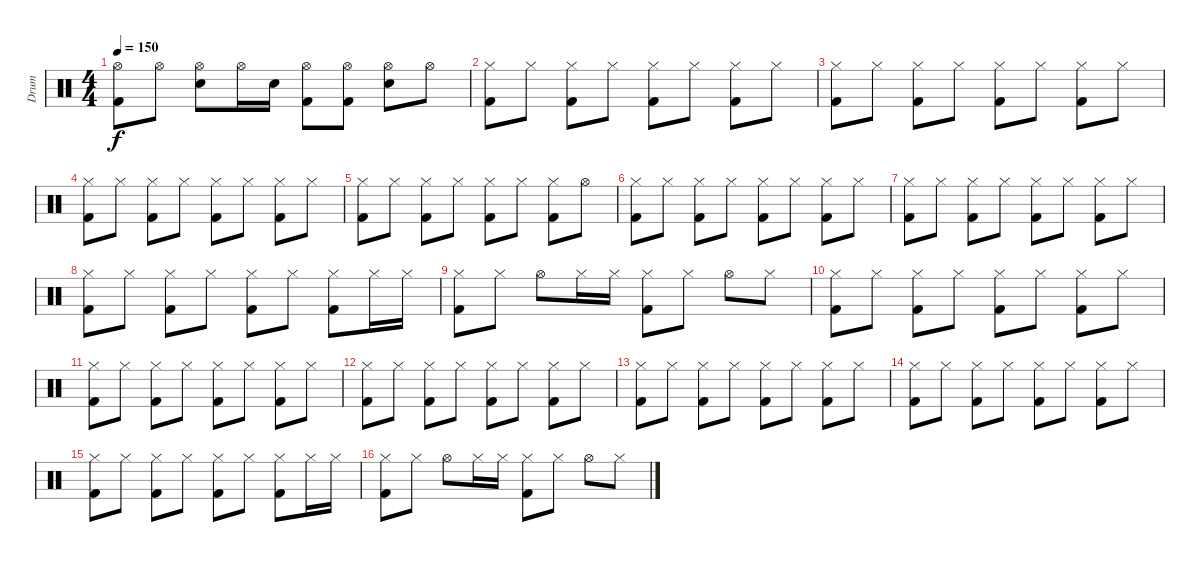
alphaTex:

\track ("Drum" "Drum") {instrument percussion}
\staff {score}
\articulation defaults
\ts (4 4)
\tempo 150
\clef neutral
\ks c
("Hi-Hat (open)" "Kick (hit) 2").8{dy f} "Hi-Hat (open)".8 ("Hi-Hat (open)" "Snare (hit) 2").8 "Hi-Hat (open)".16 "Snare (hit) 2".16 ("Hi-Hat (open)" "Kick (hit) 2").8 ("Hi-Hat (open)" "Kick (hit) 2").8 ("Hi-Hat (open)" "Snare (hit) 2").8 "Hi-Hat (open)".8 |
("Hi-Hat (closed)" "Kick (hit) 2").8 "Hi-Hat (closed)".8 ("Hi-Hat (closed)" "Kick (hit) 2").8 "Hi-Hat (closed)".8 ("Hi-Hat (closed)" "Kick (hit) 2").8 "Hi-Hat (closed)".8 ("Hi-Hat (closed)" "Kick (hit) 2").8 "Hi-Hat (closed)".8 |
("Hi-Hat (closed)" "Kick (hit) 2").8 "Hi-Hat (closed)".8 ("Hi-Hat (closed)" "Kick (hit) 2").8 "Hi-Hat (closed)".8 ("Hi-Hat (closed)" "Kick (hit) 2").8 "Hi-Hat (closed)".8 ("Hi-Hat (closed)" "Kick (hit) 2").8 "Hi-Hat (closed)".8 |
("Hi-Hat (closed)" "Kick (hit) 2").8 "Hi-Hat (closed)".8 ("Hi-Hat (closed)" "Kick (hit) 2").8 "Hi-Hat (closed)".8 ("Hi-Hat (closed)" "Kick (hit) 2").8 "Hi-Hat (closed)".8 ("Hi-Hat (closed)" "Kick (hit) 2").8 "Hi-Hat (closed)".8 |
("Hi-Hat (closed)" "Kick (hit) 2").8 "Hi-Hat (closed)".8 ("Hi-Hat (closed)" "Kick (hit) 2").8 "Hi-Hat (closed)".8 ("Hi-Hat (closed)" "Kick (hit) 2").8 "Hi-Hat (closed)".8 ("Hi-Hat (closed)" "Kick (hit) 2").8 "Hi-Hat (open)".8 |
("Hi-Hat (closed)" "Kick (hit) 2").8 "Hi-Hat (closed)".8 ("Hi-Hat (closed)" "Kick (hit) 2").8 "Hi-Hat (closed)".8 ("Hi-Hat (closed)" "Kick (hit) 2").8 "Hi-Hat (closed)".8 ("Hi-Hat (closed)" "Kick (hit) 2").8 "Hi-Hat (closed)".8 |
("Hi-Hat (closed)" "Kick (hit) 2").8 "Hi-Hat (closed)".8 ("Hi-Hat (closed)" "Kick (hit) 2").8 "Hi-Hat (closed)".8 ("Hi-Hat (closed)" "Kick (hit) 2").8 "Hi-Hat (closed)".8 ("Hi-Hat (closed)" "Kick (hit) 2").8 "Hi-Hat (closed)".8 |
("Hi-Hat (closed)" "Kick (hit) 2").8 "Hi-Hat (closed)".8 ("Hi-Hat (closed)" "Kick (hit) 2").8 "Hi-Hat (closed)".8 ("Hi-Hat (closed)" "Kick (hit) 2").8 "Hi-Hat (closed)".8 ("Hi-Hat (closed)" "Kick (hit) 2").8 "Hi-Hat (closed)".16 "Hi-Hat (closed)".16 |
("Hi-Hat (closed)" "Kick (hit) 2").8 "Hi-Hat (closed)".8 "Hi-Hat (open)".8 "Hi-Hat (closed)".16 "Hi-Hat (closed)".16 ("Hi-Hat (closed)" "Kick (hit) 2").8 "Hi-Hat (closed)".8 "Hi-Hat (open)".8 "Hi-Hat (closed)".8 |
("Hi-Hat (closed)" "Kick (hit) 2").8 "Hi-Hat (closed)".8 ("Hi-Hat (closed)" "Kick (hit) 2").8 "Hi-Hat (closed)".8 ("Hi-Hat (closed)" "Kick (hit) 2").8 "Hi-Hat (closed)".8 ("Hi-Hat (closed)" "Kick (hit) 2").8 "Hi-Hat (closed)".8 |
("Hi-Hat (closed)" "Kick (hit) 2").8 "Hi-Hat (closed)".8 ("Hi-Hat (closed)" "Kick (hit) 2").8 "Hi-Hat (closed)".8 ("Hi-Hat (closed)" "Kick (hit) 2").8 "Hi-Hat (closed)".8 ("Hi-Hat (closed)" "Kick (hit) 2").8 "Hi-Hat (closed)".8 |
("Hi-Hat (closed)" "Kick (hit) 2").8 "Hi-Hat (closed)".8 ("Hi-Hat (closed)" "Kick (hit) 2").8 "Hi-Hat (closed)".8 ("Hi-Hat (closed)" "Kick (hit) 2").8 "Hi-Hat (closed)".8 ("Hi-Hat (closed)" "Kick (hit) 2").8 "Hi-Hat (closed)".8 |
("Hi-Hat (closed)" "Kick (hit) 2").8 "Hi-Hat (closed)".8 ("Hi-Hat (closed)" "Kick (hit) 2").8 "Hi-Hat (closed)".8 ("Hi-Hat (closed)" "Kick (hit) 2").8 "Hi-Hat (closed)".8 ("Hi-Hat (closed)" "Kick (hit) 2").8 "Hi-Hat (closed)".8 |
("Hi-Hat (closed)" "Kick (hit) 2").8 "Hi-Hat (closed)".8 ("Hi-Hat (closed)" "Kick (hit) 2").8 "Hi-Hat (closed)".8 ("Hi-Hat (closed)" "Kick (hit) 2").8 "Hi-Hat (closed)".8 ("Hi-Hat (closed)" "Kick (hit) 2").8 "Hi-Hat (closed)".8 |
("Hi-Hat (closed)" "Kick (hit) 2").8 "Hi-Hat (closed)".8 ("Hi-Hat (closed)" "Kick (hit) 2").8 "Hi-Hat (closed)".8 ("Hi-Hat (closed)" "Kick (hit) 2").8 "Hi-Hat (closed)".8 ("Hi-Hat (closed)" "Kick (hit) 2").8 "Hi-Hat (closed)".16 "Hi-Hat (closed)".16 |
("Hi-Hat (closed)" "Kick (hit) 2").8 "Hi-Hat (closed)".8 "Hi-Hat (open)".8 "Hi-Hat (closed)".16 "Hi-Hat (closed)".16 ("Hi-Hat (closed)" "Kick (hit) 2").8 "Hi-Hat (closed)".8 "Hi-Hat (open)".8 "Hi-Hat (closed)".8
